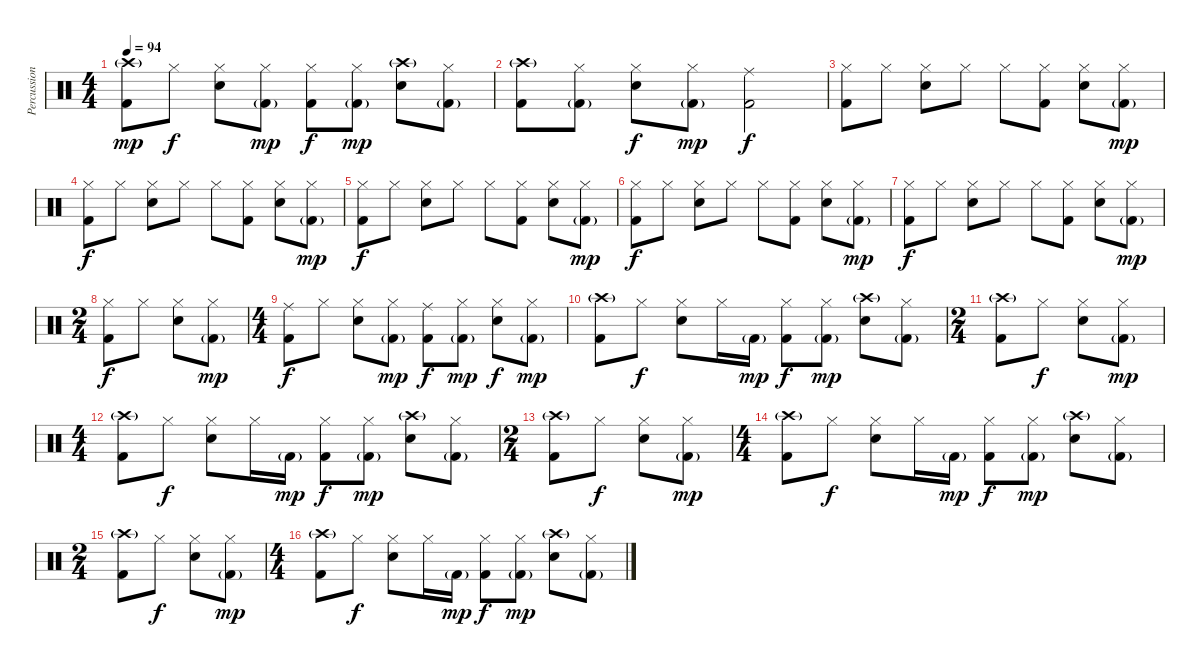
\track ("Percussion" "Percussion") {instrument percussion}
\staff {score}
\articulation defaults
\ts (4 4)
\tempo 94
\clef neutral
\ks c
("Crash high (hit)"{g} "Kick (hit) 2").8{dy mp} "Hi-Hat (closed)".8{dy f} ("Hi-Hat (closed)" "Snare (hit) 2").8 ("Hi-Hat (closed)" "Kick (hit) 2"{g}).8{dy mp} ("Hi-Hat (closed)" "Kick (hit) 2").8{dy f} ("Hi-Hat (closed)" "Kick (hit) 2"{g}).8{dy mp} ("Crash high (hit)"{g} "Snare (hit) 2").8 ("Hi-Hat (closed)" "Kick (hit) 2"{g}).8 |
("Crash high (hit)"{g} "Kick (hit) 2").8 ("Hi-Hat (closed)" "Kick (hit) 2"{g}).8 ("Hi-Hat (closed)" "Snare (hit) 2").8{dy f} ("Hi-Hat (closed)" "Kick (hit) 2"{g}).8{dy mp} ("Ride (middle)" "Kick (hit) 2").2{dy f} |
("Hi-Hat (closed)" "Kick (hit) 2").8 "Hi-Hat (closed)".8 ("Hi-Hat (closed)" "Snare (hit) 2").8 "Hi-Hat (closed)".8 "Hi-Hat (closed)".8 ("Hi-Hat (closed)" "Kick (hit) 2").8 ("Hi-Hat (closed)" "Snare (hit) 2").8 ("Hi-Hat (closed)" "Kick (hit) 2"{g}).8{dy mp} |
("Hi-Hat (closed)" "Kick (hit) 2").8{dy f} "Hi-Hat (closed)".8 ("Hi-Hat (closed)" "Snare (hit) 2").8 "Hi-Hat (closed)".8 "Hi-Hat (closed)".8 ("Hi-Hat (closed)" "Kick (hit) 2").8 ("Hi-Hat (closed)" "Snare (hit) 2").8 ("Hi-Hat (closed)" "Kick (hit) 2"{g}).8{dy mp} |
("Hi-Hat (closed)" "Kick (hit) 2").8{dy f} "Hi-Hat (closed)".8 ("Hi-Hat (closed)" "Snare (hit) 2").8 "Hi-Hat (closed)".8 "Hi-Hat (closed)".8 ("Hi-Hat (closed)" "Kick (hit) 2").8 ("Hi-Hat (closed)" "Snare (hit) 2").8 ("Hi-Hat (closed)" "Kick (hit) 2"{g}).8{dy mp} |
("Hi-Hat (closed)" "Kick (hit) 2").8{dy f} "Hi-Hat (closed)".8 ("Hi-Hat (closed)" "Snare (hit) 2").8 "Hi-Hat (closed)".8 "Hi-Hat (closed)".8 ("Hi-Hat (closed)" "Kick (hit) 2").8 ("Hi-Hat (closed)" "Snare (hit) 2").8 ("Hi-Hat (closed)" "Kick (hit) 2"{g}).8{dy mp} |
("Hi-Hat (closed)" "Kick (hit) 2").8{dy f} "Hi-Hat (closed)".8 ("Hi-Hat (closed)" "Snare (hit) 2").8 "Hi-Hat (closed)".8 "Hi-Hat (closed)".8 ("Hi-Hat (closed)" "Kick (hit) 2").8 ("Hi-Hat (closed)" "Snare (hit) 2").8 ("Hi-Hat (closed)" "Kick (hit) 2"{g}).8{dy mp} |
\ts (2 4)
("Hi-Hat (closed)" "Kick (hit) 2").8{dy f} "Hi-Hat (closed)".8 ("Hi-Hat (closed)" "Snare (hit) 2").8 ("Hi-Hat (closed)" "Kick (hit) 2"{g}).8{dy mp} |
\ts (4 4)
("Ride (middle)" "Kick (hit) 2").8{dy f} "Hi-Hat (closed)".8 ("Hi-Hat (closed)" "Snare (hit) 2").8 ("Hi-Hat (closed)" "Kick (hit) 2"{g}).8{dy mp} ("Ride (middle)" "Kick (hit) 2").8{dy f} ("Hi-Hat (closed)" "Kick (hit) 2"{g}).8{dy mp} ("Hi-Hat (closed)" "Snare (hit) 2").8{dy f} ("Hi-Hat (closed)" "Kick (hit) 2"{g}).8{dy mp} |
("Crash high (hit)"{g} "Kick (hit) 2").8 "Hi-Hat (closed)".8{dy f} ("Hi-Hat (closed)" "Snare (hit) 2").8 "Hi-Hat (closed)".16 "Kick (hit) 2"{g}.16{dy mp} ("Hi-Hat (closed)" "Kick (hit) 2").8{dy f} ("Hi-Hat (closed)" "Kick (hit) 2"{g}).8{dy mp} ("Crash high (hit)"{g} "Snare (hit) 2").8 ("Hi-Hat (closed)" "Kick (hit) 2"{g}).8 |
\ts (2 4)
("Crash high (hit)"{g} "Kick (hit) 2").8 "Hi-Hat (closed)".8{dy f} ("Hi-Hat (closed)" "Snare (hit) 2").8 ("Hi-Hat (closed)" "Kick (hit) 2"{g}).8{dy mp} |
\ts (4 4)
("Crash high (hit)"{g} "Kick (hit) 2").8 "Hi-Hat (closed)".8{dy f} ("Hi-Hat (closed)" "Snare (hit) 2").8 "Hi-Hat (closed)".16 "Kick (hit) 2"{g}.16{dy mp} ("Hi-Hat (closed)" "Kick (hit) 2").8{dy f} ("Hi-Hat (closed)" "Kick (hit) 2"{g}).8{dy mp} ("Crash high (hit)"{g} "Snare (hit) 2").8 ("Hi-Hat (closed)" "Kick (hit) 2"{g}).8 |
\ts (2 4)
("Crash high (hit)"{g} "Kick (hit) 2").8 "Hi-Hat (closed)".8{dy f} ("Hi-Hat (closed)" "Snare (hit) 2").8 ("Hi-Hat (closed)" "Kick (hit) 2"{g}).8{dy mp} |
\ts (4 4)
("Crash high (hit)"{g} "Kick (hit) 2").8 "Hi-Hat (closed)".8{dy f} ("Hi-Hat (closed)" "Snare (hit) 2").8 "Hi-Hat (closed)".16 "Kick (hit) 2"{g}.16{dy mp} ("Hi-Hat (closed)" "Kick (hit) 2").8{dy f} ("Hi-Hat (closed)" "Kick (hit) 2"{g}).8{dy mp} ("Crash high (hit)"{g} "Snare (hit) 2").8 ("Hi-Hat (closed)" "Kick (hit) 2"{g}).8 |
\ts (2 4)
("Crash high (hit)"{g} "Kick (hit) 2").8 "Hi-Hat (closed)".8{dy f} ("Hi-Hat (closed)" "Snare (hit) 2").8 ("Hi-Hat (closed)" "Kick (hit) 2"{g}).8{dy mp} |
\ts (4 4)
("Crash high (hit)"{g} "Kick (hit) 2").8 "Hi-Hat (closed)".8{dy f} ("Hi-Hat (closed)" "Snare (hit) 2").8 "Hi-Hat (closed)".16 "Kick (hit) 2"{g}.16{dy mp} ("Hi-Hat (closed)" "Kick (hit) 2").8{dy f} ("Hi-Hat (closed)" "Kick (hit) 2"{g}).8{dy mp} ("Crash high (hit)"{g} "Snare (hit) 2").8 ("Hi-Hat (closed)" "Kick (hit) 2"{g}).8
